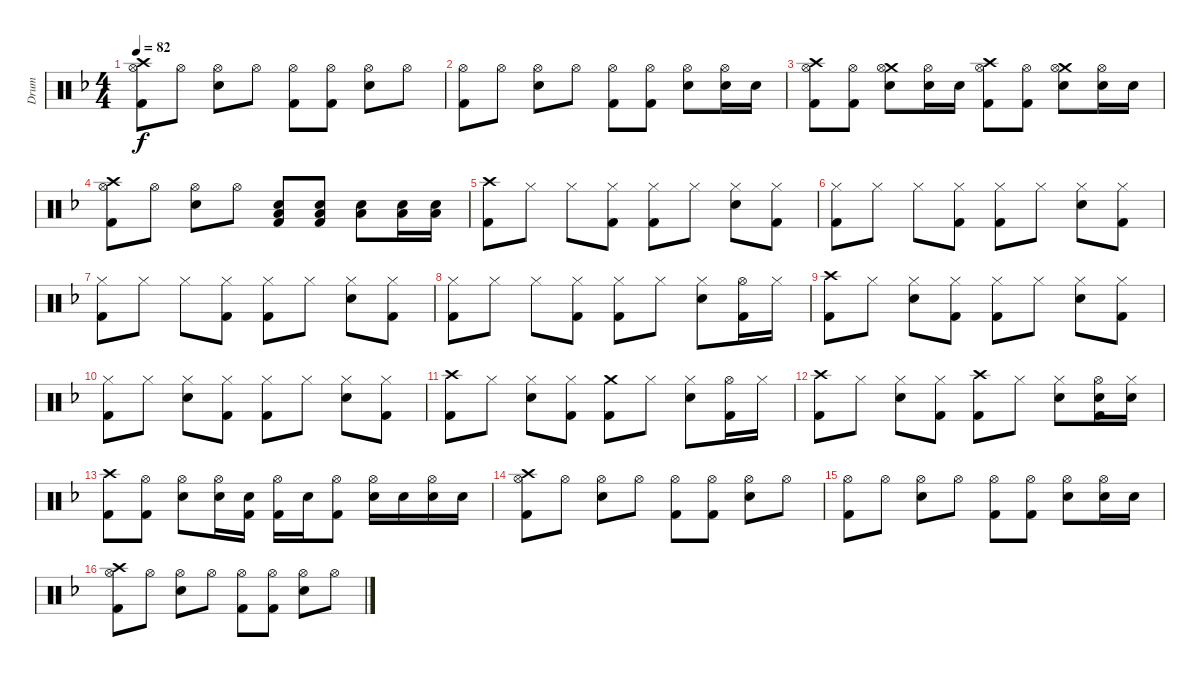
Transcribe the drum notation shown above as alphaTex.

\track ("Drum" "Drum") {instrument percussion}
\staff {score}
\articulation defaults
\ts (4 4)
\tempo 82
\clef neutral
\ks f
("Crash high (hit)" "Hi-Hat (open)" "Kick (hit) 2").8{dy f} "Hi-Hat (open)".8 ("Hi-Hat (open)" "Electric Snare (hit)").8 "Hi-Hat (open)".8 ("Hi-Hat (open)" "Kick (hit) 2").8 ("Hi-Hat (open)" "Kick (hit) 2").8 ("Hi-Hat (open)" "Electric Snare (hit)").8 "Hi-Hat (open)".8 |
("Hi-Hat (open)" "Kick (hit) 2").8 "Hi-Hat (open)".8 ("Hi-Hat (open)" "Electric Snare (hit)").8 "Hi-Hat (open)".8 ("Hi-Hat (open)" "Kick (hit) 2").8 ("Hi-Hat (open)" "Kick (hit) 2").8 ("Hi-Hat (open)" "Electric Snare (hit)").8 ("Hi-Hat (open)" "Electric Snare (hit)").16 "Electric Snare (hit)".16 |
("Crash high (hit)" "Hi-Hat (open)" "Kick (hit) 2").8 ("Hi-Hat (open)" "Kick (hit) 2").8 ("Crash medium (hit)" "Hi-Hat (open)" "Electric Snare (hit)").8 ("Hi-Hat (open)" "Electric Snare (hit)").16 "Electric Snare (hit)".16 ("Crash high (hit)" "Hi-Hat (open)" "Kick (hit) 2").8 ("Hi-Hat (open)" "Kick (hit) 2").8 ("Crash medium (hit)" "Hi-Hat (open)" "Electric Snare (hit)").8 ("Hi-Hat (open)" "Electric Snare (hit)").16 "Electric Snare (hit)".16 |
("Crash high (hit)" "Hi-Hat (open)" "Kick (hit) 2").8 "Hi-Hat (open)".8 ("Hi-Hat (open)" "Electric Snare (hit)").8 "Hi-Hat (open)".8 ("Low Floor Tom (hit)" "Electric Snare (hit)" "Kick (hit) 2").8 ("Low Floor Tom (hit)" "Electric Snare (hit)" "Kick (hit) 2").8 ("Low Floor Tom (hit)" "Electric Snare (hit)").8 ("Low Floor Tom (hit)" "Electric Snare (hit)").16 ("Low Floor Tom (hit)" "Electric Snare (hit)").16 |
("Crash high (hit)" "Kick (hit) 2").8 "Hi-Hat (closed)".8 "Hi-Hat (closed)".8 ("Hi-Hat (closed)" "Kick (hit) 2").8 ("Hi-Hat (closed)" "Kick (hit) 2").8 "Hi-Hat (closed)".8 ("Hi-Hat (closed)" "Electric Snare (hit)").8 ("Hi-Hat (closed)" "Kick (hit) 2").8 |
("Hi-Hat (closed)" "Kick (hit) 2").8 "Hi-Hat (closed)".8 "Hi-Hat (closed)".8 ("Hi-Hat (closed)" "Kick (hit) 2").8 ("Hi-Hat (closed)" "Kick (hit) 2").8 "Hi-Hat (closed)".8 ("Hi-Hat (closed)" "Electric Snare (hit)").8 ("Hi-Hat (closed)" "Kick (hit) 2").8 |
("Hi-Hat (closed)" "Kick (hit) 2").8 "Hi-Hat (closed)".8 "Hi-Hat (closed)".8 ("Hi-Hat (closed)" "Kick (hit) 2").8 ("Hi-Hat (closed)" "Kick (hit) 2").8 "Hi-Hat (closed)".8 ("Hi-Hat (closed)" "Electric Snare (hit)").8 ("Hi-Hat (closed)" "Kick (hit) 2").8 |
("Hi-Hat (closed)" "Kick (hit) 2").8 "Hi-Hat (closed)".8 "Hi-Hat (closed)".8 ("Hi-Hat (closed)" "Kick (hit) 2").8 ("Hi-Hat (closed)" "Kick (hit) 2").8 "Hi-Hat (closed)".8 ("Hi-Hat (closed)" "Electric Snare (hit)").8 ("Hi-Hat (open)" "Kick (hit) 2").16 "Hi-Hat (closed)".16 |
("Crash high (hit)" "Kick (hit) 2").8 "Hi-Hat (closed)".8 ("Hi-Hat (closed)" "Electric Snare (hit)").8 ("Hi-Hat (closed)" "Kick (hit) 2").8 ("Hi-Hat (closed)" "Kick (hit) 2").8 "Hi-Hat (closed)".8 ("Hi-Hat (closed)" "Electric Snare (hit)").8 ("Hi-Hat (closed)" "Kick (hit) 2").8 |
("Hi-Hat (closed)" "Kick (hit) 2").8 "Hi-Hat (closed)".8 ("Hi-Hat (closed)" "Electric Snare (hit)").8 ("Hi-Hat (closed)" "Kick (hit) 2").8 ("Hi-Hat (closed)" "Kick (hit) 2").8 "Hi-Hat (closed)".8 ("Hi-Hat (closed)" "Electric Snare (hit)").8 ("Hi-Hat (closed)" "Kick (hit) 2").8 |
("Crash high (hit)" "Kick (hit) 2").8 "Hi-Hat (closed)".8 ("Hi-Hat (closed)" "Electric Snare (hit)").8 ("Hi-Hat (closed)" "Kick (hit) 2").8 ("Crash medium (hit)" "Kick (hit) 2").8 "Hi-Hat (closed)".8 ("Hi-Hat (closed)" "Electric Snare (hit)").8 ("Hi-Hat (open)" "Kick (hit) 2").16 "Hi-Hat (closed)".16 |
("Crash high (hit)" "Kick (hit) 2").8 "Hi-Hat (closed)".8 ("Hi-Hat (closed)" "Electric Snare (hit)").8 ("Hi-Hat (closed)" "Kick (hit) 2").8 ("Crash high (hit)" "Kick (hit) 2").8 "Hi-Hat (closed)".8 ("Hi-Hat (closed)" "Electric Snare (hit)").8 ("Hi-Hat (open)" "Electric Snare (hit)" "Kick (hit) 2").16 ("Hi-Hat (closed)" "Electric Snare (hit)").16 |
("Crash high (hit)" "Kick (hit) 2").8 ("Hi-Hat (open)" "Kick (hit) 2").8 ("Hi-Hat (open)" "Electric Snare (hit)").8 ("Hi-Hat (open)" "Electric Snare (hit)").16 ("Electric Snare (hit)" "Kick (hit) 2").16 ("Hi-Hat (open)" "Kick (hit) 2").16 "Electric Snare (hit)".16 ("Hi-Hat (open)" "Kick (hit) 2").8 ("Hi-Hat (open)" "Electric Snare (hit)").16 "Electric Snare (hit)".16 ("Hi-Hat (open)" "Electric Snare (hit)").16 "Electric Snare (hit)".16 |
("Crash high (hit)" "Hi-Hat (open)" "Kick (hit) 2").8 "Hi-Hat (open)".8 ("Hi-Hat (open)" "Electric Snare (hit)").8 "Hi-Hat (open)".8 ("Hi-Hat (open)" "Kick (hit) 2").8 ("Hi-Hat (open)" "Kick (hit) 2").8 ("Hi-Hat (open)" "Electric Snare (hit)").8 "Hi-Hat (open)".8 |
("Hi-Hat (open)" "Kick (hit) 2").8 "Hi-Hat (open)".8 ("Hi-Hat (open)" "Electric Snare (hit)").8 "Hi-Hat (open)".8 ("Hi-Hat (open)" "Kick (hit) 2").8 ("Hi-Hat (open)" "Kick (hit) 2").8 ("Hi-Hat (open)" "Electric Snare (hit)").8 ("Hi-Hat (open)" "Electric Snare (hit)").16 "Electric Snare (hit)".16 |
("Crash high (hit)" "Hi-Hat (open)" "Kick (hit) 2").8 "Hi-Hat (open)".8 ("Hi-Hat (open)" "Electric Snare (hit)").8 "Hi-Hat (open)".8 ("Hi-Hat (open)" "Kick (hit) 2").8 ("Hi-Hat (open)" "Kick (hit) 2").8 ("Hi-Hat (open)" "Electric Snare (hit)").8 "Hi-Hat (open)".8
